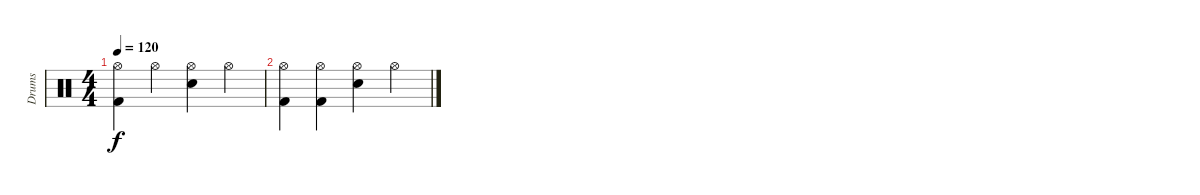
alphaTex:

\track ("Drums" "Drums") {instrument percussion}
\staff {score}
\articulation defaults
\ts (4 4)
\tempo 120
\clef neutral
\ks c
("Hi-Hat (open)" "Kick (hit) 2").4{dy f} "Hi-Hat (open)".4 ("Hi-Hat (open)" "Snare (hit) 2").4 "Hi-Hat (open)".4 |
("Hi-Hat (open)" "Kick (hit) 2").4 ("Hi-Hat (open)" "Kick (hit) 2").4 ("Hi-Hat (open)" "Snare (hit) 2").4 "Hi-Hat (open)".4
